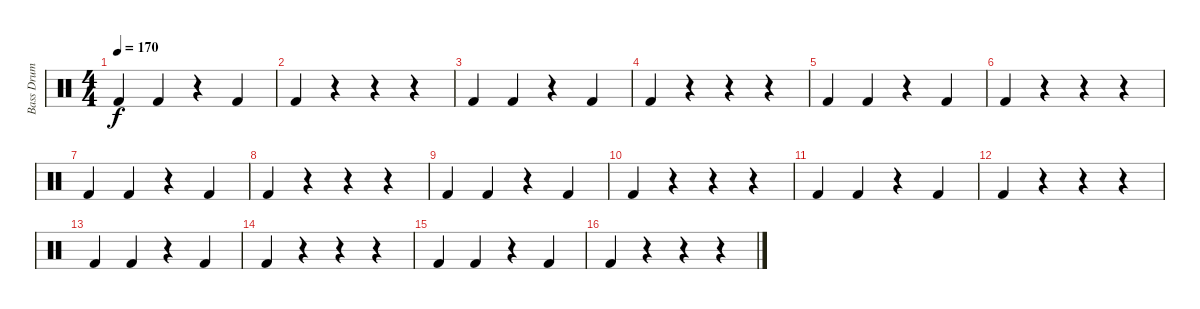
\track ("Bass Drum" "Bass Drum") {instrument percussion}
\staff {score}
\articulation defaults
\ts (4 4)
\tempo 170
\clef neutral
\ks c "Kick (hit) 2".4{dy f} "Kick (hit) 2".4
r.4 "Kick (hit) 2".4 |
"Kick (hit) 2".4 r.4 r.4 r.4 |
"Kick (hit) 2".4 "Kick (hit) 2".4 r.4 "Kick (hit) 2".4 |
"Kick (hit) 2".4 r.4 r.4 r.4 |
"Kick (hit) 2".4 "Kick (hit) 2".4 r.4 "Kick (hit) 2".4 |
"Kick (hit) 2".4 r.4 r.4 r.4 |
"Kick (hit) 2".4 "Kick (hit) 2".4 r.4 "Kick (hit) 2".4 |
"Kick (hit) 2".4 r.4 r.4 r.4 |
"Kick (hit) 2".4 "Kick (hit) 2".4 r.4 "Kick (hit) 2".4 |
"Kick (hit) 2".4 r.4 r.4 r.4 |
"Kick (hit) 2".4 "Kick (hit) 2".4 r.4 "Kick (hit) 2".4 |
"Kick (hit) 2".4 r.4 r.4 r.4 |
"Kick (hit) 2".4 "Kick (hit) 2".4 r.4 "Kick (hit) 2".4 |
"Kick (hit) 2".4 r.4 r.4 r.4 |
"Kick (hit) 2".4 "Kick (hit) 2".4 r.4 "Kick (hit) 2".4 |
"Kick (hit) 2".4 r.4 r.4 r.4
